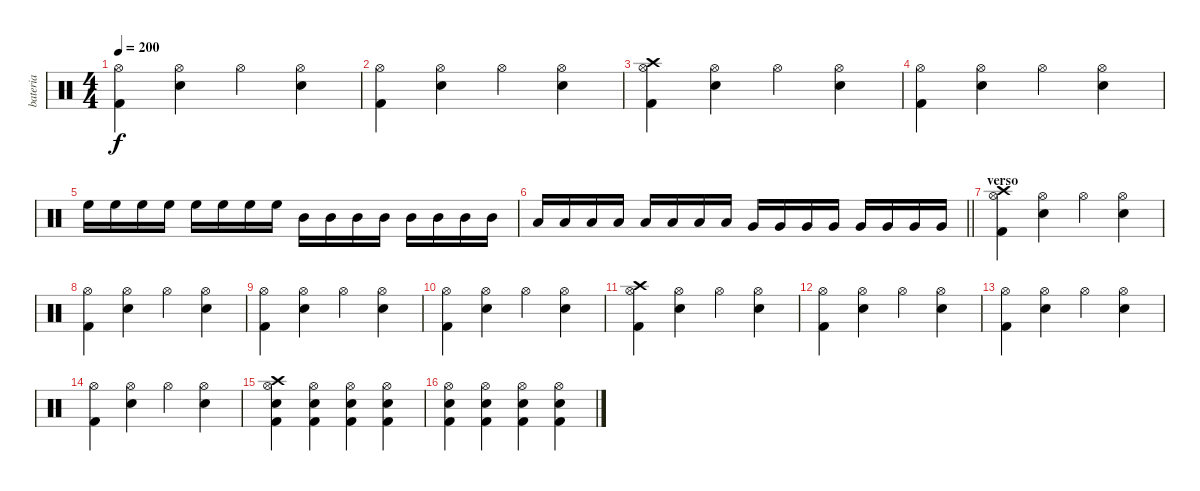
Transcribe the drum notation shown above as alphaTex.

\track ("bateria" "bateria") {instrument percussion}
\staff {score}
\articulation defaults
\ts (4 4)
\tempo 200
\clef neutral
\ks c
("Hi-Hat (open)" "Kick (hit) 2").4{dy f} ("Hi-Hat (open)" "Electric Snare (hit)").4 "Hi-Hat (open)".4 ("Hi-Hat (open)" "Electric Snare (hit)").4 |
("Hi-Hat (open)" "Kick (hit) 2").4 ("Hi-Hat (open)" "Electric Snare (hit)").4 "Hi-Hat (open)".4 ("Hi-Hat (open)" "Electric Snare (hit)").4 |
("Hi-Hat (open)" "Kick (hit) 2" "Crash high (hit)").4 ("Hi-Hat (open)" "Electric Snare (hit)").4 "Hi-Hat (open)".4 ("Hi-Hat (open)" "Electric Snare (hit)").4 |
("Hi-Hat (open)" "Kick (hit) 2").4 ("Hi-Hat (open)" "Electric Snare (hit)").4 "Hi-Hat (open)".4 ("Hi-Hat (open)" "Electric Snare (hit)").4 |
"High Floor Tom (hit)".16 "High Floor Tom (hit)".16 "High Floor Tom (hit)".16 "High Floor Tom (hit)".16 "High Floor Tom (hit)".16 "High Floor Tom (hit)".16 "High Floor Tom (hit)".16 "High Floor Tom (hit)".16 "Mid Tom (hit)".16 "Mid Tom (hit)".16 "Mid Tom (hit)".16 "Mid Tom (hit)".16 "Mid Tom (hit)".16 "Mid Tom (hit)".16 "Mid Tom (hit)".16 "Mid Tom (hit)".16 |
\barLineRight lightlight "Low Tom (hit)".16 "Low Tom (hit)".16 "Low Tom (hit)".16 "Low Tom (hit)".16 "Low Tom (hit)".16 "Low Tom (hit)".16 "Low Tom (hit)".16 "Low Tom (hit)".16 "Very Low Tom (hit)".16 "Very Low Tom (hit)".16 "Very Low Tom (hit)".16 "Very Low Tom (hit)".16 "Very Low Tom (hit)".16 "Very Low Tom (hit)".16 "Very Low Tom (hit)".16 "Very Low Tom (hit)".16
|
\section ("" "verso")
("Hi-Hat (open)" "Kick (hit) 2" "Crash high (hit)").4 ("Hi-Hat (open)" "Electric Snare (hit)").4 "Hi-Hat (open)".4 ("Hi-Hat (open)" "Electric Snare (hit)").4 |
("Hi-Hat (open)" "Kick (hit) 2").4 ("Hi-Hat (open)" "Electric Snare (hit)").4 "Hi-Hat (open)".4 ("Hi-Hat (open)" "Electric Snare (hit)").4 |
("Hi-Hat (open)" "Kick (hit) 2").4 ("Hi-Hat (open)" "Electric Snare (hit)").4 "Hi-Hat (open)".4 ("Hi-Hat (open)" "Electric Snare (hit)").4 |
("Hi-Hat (open)" "Kick (hit) 2").4 ("Hi-Hat (open)" "Electric Snare (hit)").4 "Hi-Hat (open)".4 ("Hi-Hat (open)" "Electric Snare (hit)").4 |
("Hi-Hat (open)" "Kick (hit) 2" "Crash high (hit)").4 ("Hi-Hat (open)" "Electric Snare (hit)").4 "Hi-Hat (open)".4 ("Hi-Hat (open)" "Electric Snare (hit)").4 |
("Hi-Hat (open)" "Kick (hit) 2").4 ("Hi-Hat (open)" "Electric Snare (hit)").4 "Hi-Hat (open)".4 ("Hi-Hat (open)" "Electric Snare (hit)").4 |
("Hi-Hat (open)" "Kick (hit) 2").4 ("Hi-Hat (open)" "Electric Snare (hit)").4 "Hi-Hat (open)".4 ("Hi-Hat (open)" "Electric Snare (hit)").4 |
("Hi-Hat (open)" "Kick (hit) 2").4 ("Hi-Hat (open)" "Electric Snare (hit)").4 "Hi-Hat (open)".4 ("Hi-Hat (open)" "Electric Snare (hit)").4 |
("Electric Snare (hit)" "Kick (hit) 2" "Hi-Hat (open)" "Crash high (hit)").4 ("Electric Snare (hit)" "Kick (hit) 2" "Hi-Hat (open)").4 ("Electric Snare (hit)" "Kick (hit) 2" "Hi-Hat (open)").4 ("Electric Snare (hit)" "Kick (hit) 2" "Hi-Hat (open)").4 |
("Electric Snare (hit)" "Kick (hit) 2" "Hi-Hat (open)").4 ("Electric Snare (hit)" "Kick (hit) 2" "Hi-Hat (open)").4 ("Electric Snare (hit)" "Kick (hit) 2" "Hi-Hat (open)").4 ("Electric Snare (hit)" "Kick (hit) 2" "Hi-Hat (open)").4
